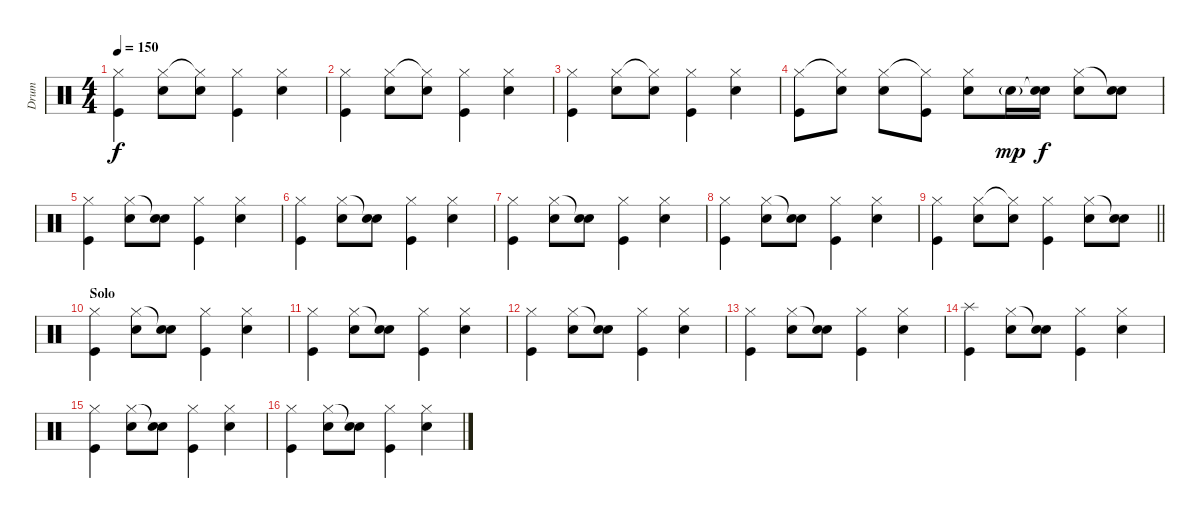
\track ("Drum" "Drum") {instrument percussion}
\staff {score}
\articulation defaults
\ts (4 4)
\tempo 150
\clef neutral
\ks c
("Hi-Hat (closed)" "Kick (hit)").4{dy f} ("Hi-Hat (closed)" "Snare (hit) 2").8 ("Hi-Hat (closed)"{t} "Snare (hit) 2").8 ("Hi-Hat (closed)" "Kick (hit)").4 ("Hi-Hat (closed)" "Snare (hit) 2").4 |
("Hi-Hat (closed)" "Kick (hit)").4 ("Hi-Hat (closed)" "Snare (hit) 2").8 ("Hi-Hat (closed)"{t} "Snare (hit) 2").8 ("Hi-Hat (closed)" "Kick (hit)").4 ("Hi-Hat (closed)" "Snare (hit) 2").4 |
("Hi-Hat (closed)" "Kick (hit)").4 ("Hi-Hat (closed)" "Snare (hit) 2").8 ("Hi-Hat (closed)"{t} "Snare (hit) 2").8 ("Hi-Hat (closed)" "Kick (hit)").4 ("Hi-Hat (closed)" "Snare (hit) 2").4 |
("Hi-Hat (closed)" "Kick (hit)").8 ("Hi-Hat (closed)"{t} "Snare (hit) 2").8 ("Hi-Hat (closed)" "Snare (hit) 2").8 ("Hi-Hat (closed)"{t} "Kick (hit)").8 ("Hi-Hat (closed)" "Snare (hit) 2").8 "Snare (hit) 2"{g}.16{dy mp} ("Snare (hit)"{t} "Snare (hit) 2").16{dy f} ("Hi-Hat (closed)" "Snare (hit) 2").8 ("Snare (hit)"{t} "Snare (hit) 2").8 |
("Hi-Hat (closed)" "Kick (hit)").4 ("Hi-Hat (closed)" "Snare (hit) 2").8 ("Snare (hit)"{t} "Snare (hit) 2").8 ("Hi-Hat (closed)" "Kick (hit)").4 ("Hi-Hat (closed)" "Snare (hit) 2").4 |
("Hi-Hat (closed)" "Kick (hit)").4 ("Hi-Hat (closed)" "Snare (hit) 2").8 ("Snare (hit)"{t} "Snare (hit) 2").8 ("Hi-Hat (closed)" "Kick (hit)").4 ("Hi-Hat (closed)" "Snare (hit) 2").4 |
("Hi-Hat (closed)" "Kick (hit)").4 ("Hi-Hat (closed)" "Snare (hit) 2").8 ("Snare (hit)"{t} "Snare (hit) 2").8 ("Hi-Hat (closed)" "Kick (hit)").4 ("Hi-Hat (closed)" "Snare (hit) 2").4 |
("Hi-Hat (closed)" "Kick (hit)").4 ("Hi-Hat (closed)" "Snare (hit) 2").8 ("Snare (hit)"{t} "Snare (hit) 2").8 ("Hi-Hat (closed)" "Kick (hit)").4 ("Hi-Hat (closed)" "Snare (hit) 2").4 |
\barLineRight lightlight
("Hi-Hat (closed)" "Kick (hit)").4 ("Hi-Hat (closed)" "Snare (hit) 2").8 ("Hi-Hat (closed)"{t} "Snare (hit) 2").8 ("Hi-Hat (closed)" "Kick (hit)").4 ("Hi-Hat (closed)" "Snare (hit) 2").8 ("Snare (hit)"{t} "Snare (hit) 2").8 |
\section ("" "Solo")
("Hi-Hat (closed)" "Kick (hit)").4 ("Hi-Hat (closed)" "Snare (hit) 2").8 ("Snare (hit)"{t} "Snare (hit) 2").8 ("Hi-Hat (closed)" "Kick (hit)").4 ("Hi-Hat (closed)" "Snare (hit) 2").4 |
("Hi-Hat (closed)" "Kick (hit)").4 ("Hi-Hat (closed)" "Snare (hit) 2").8 ("Snare (hit)"{t} "Snare (hit) 2").8 ("Hi-Hat (closed)" "Kick (hit)").4 ("Hi-Hat (closed)" "Snare (hit) 2").4 |
("Hi-Hat (closed)" "Kick (hit)").4 ("Hi-Hat (closed)" "Snare (hit) 2").8 ("Snare (hit)"{t} "Snare (hit) 2").8 ("Hi-Hat (closed)" "Kick (hit)").4 ("Hi-Hat (closed)" "Snare (hit) 2").4 |
("Hi-Hat (closed)" "Kick (hit)").4 ("Hi-Hat (closed)" "Snare (hit) 2").8 ("Snare (hit)"{t} "Snare (hit) 2").8 ("Hi-Hat (closed)" "Kick (hit)").4 ("Hi-Hat (closed)" "Snare (hit) 2").4 |
("Splash (hit)" "Kick (hit)").4 ("Hi-Hat (closed)" "Snare (hit) 2").8 ("Snare (hit)"{t} "Snare (hit) 2").8 ("Hi-Hat (closed)" "Kick (hit)").4 ("Hi-Hat (closed)" "Snare (hit) 2").4 |
("Hi-Hat (closed)" "Kick (hit)").4 ("Hi-Hat (closed)" "Snare (hit) 2").8 ("Snare (hit)"{t} "Snare (hit) 2").8 ("Hi-Hat (closed)" "Kick (hit)").4 ("Hi-Hat (closed)" "Snare (hit) 2").4 |
("Hi-Hat (closed)" "Kick (hit)").4 ("Hi-Hat (closed)" "Snare (hit) 2").8 ("Snare (hit)"{t} "Snare (hit) 2").8 ("Hi-Hat (closed)" "Kick (hit)").4 ("Hi-Hat (closed)" "Snare (hit) 2").4
